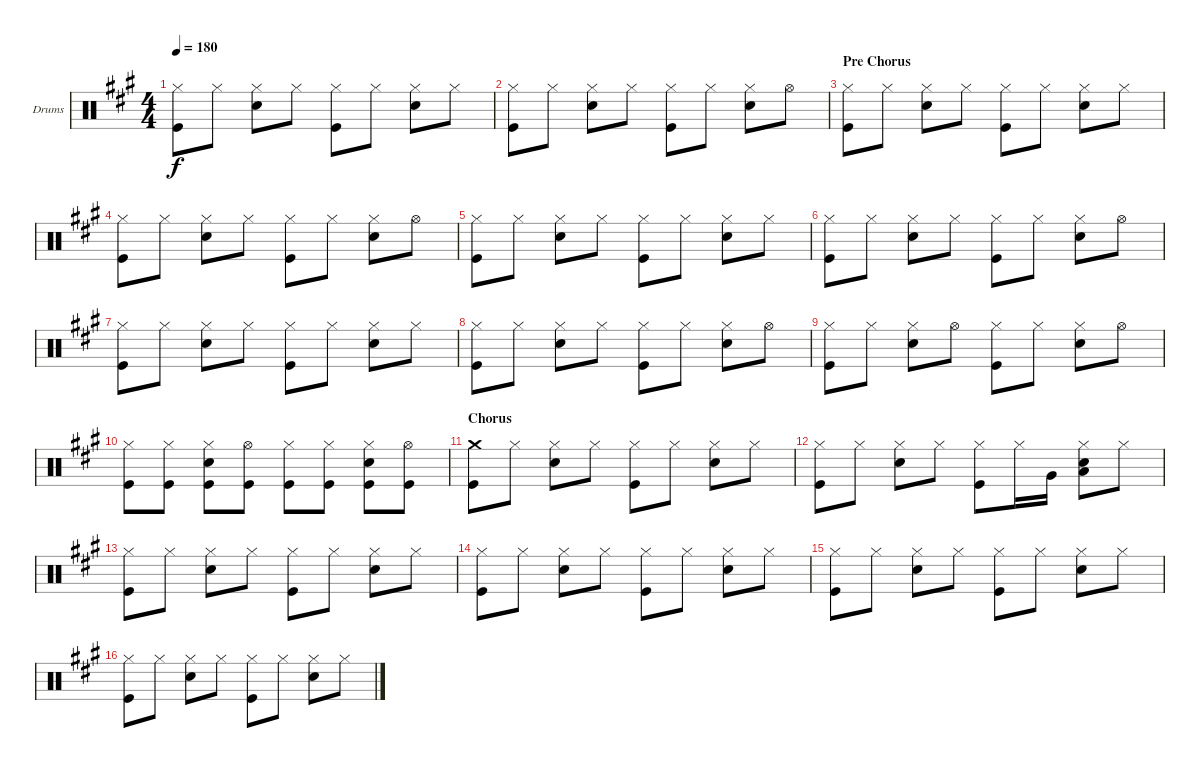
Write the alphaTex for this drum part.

\defaultSystemsLayout 4
\bracketExtendMode groupsimilarinstruments
\firstSystemTrackNameOrientation horizontal
\otherSystemsTrackNameOrientation horizontal
\track ("Drumkit" "Drums") {instrument percussion}
\staff {score}
\articulation defaults
\ts (4 4)
\tempo 180
\clef neutral
\ks f#minor
("Hi-Hat (closed)" "Kick (hit)").8{dy f} "Hi-Hat (closed)".8 ("Hi-Hat (closed)" "Snare (hit) 2").8 "Hi-Hat (closed)".8 ("Hi-Hat (closed)" "Kick (hit)").8 "Hi-Hat (closed)".8 ("Hi-Hat (closed)" "Snare (hit) 2").8 "Hi-Hat (closed)".8 |
("Hi-Hat (closed)" "Kick (hit)").8 "Hi-Hat (closed)".8 ("Hi-Hat (closed)" "Snare (hit) 2").8 "Hi-Hat (closed)".8 ("Hi-Hat (closed)" "Kick (hit)").8 "Hi-Hat (closed)".8 ("Hi-Hat (closed)" "Snare (hit) 2").8 "Hi-Hat (open)".8 |
\section ("" "Pre Chorus")
("Hi-Hat (closed)" "Kick (hit)").8 "Hi-Hat (closed)".8 ("Hi-Hat (closed)" "Snare (hit) 2").8 "Hi-Hat (closed)".8 ("Hi-Hat (closed)" "Kick (hit)").8 "Hi-Hat (closed)".8 ("Hi-Hat (closed)" "Snare (hit) 2").8 "Hi-Hat (closed)".8 |
("Hi-Hat (closed)" "Kick (hit)").8 "Hi-Hat (closed)".8 ("Hi-Hat (closed)" "Snare (hit) 2").8 "Hi-Hat (closed)".8 ("Hi-Hat (closed)" "Kick (hit)").8 "Hi-Hat (closed)".8 ("Hi-Hat (closed)" "Snare (hit) 2").8 "Hi-Hat (open)".8 |
("Hi-Hat (closed)" "Kick (hit)").8 "Hi-Hat (closed)".8 ("Hi-Hat (closed)" "Snare (hit) 2").8 "Hi-Hat (closed)".8 ("Hi-Hat (closed)" "Kick (hit)").8 "Hi-Hat (closed)".8 ("Hi-Hat (closed)" "Snare (hit) 2").8 "Hi-Hat (closed)".8 |
("Hi-Hat (closed)" "Kick (hit)").8 "Hi-Hat (closed)".8 ("Hi-Hat (closed)" "Snare (hit) 2").8 "Hi-Hat (closed)".8 ("Hi-Hat (closed)" "Kick (hit)").8 "Hi-Hat (closed)".8 ("Hi-Hat (closed)" "Snare (hit) 2").8 "Hi-Hat (open)".8 |
("Hi-Hat (closed)" "Kick (hit)").8 "Hi-Hat (closed)".8 ("Hi-Hat (closed)" "Snare (hit) 2").8 "Hi-Hat (closed)".8 ("Hi-Hat (closed)" "Kick (hit)").8 "Hi-Hat (closed)".8 ("Hi-Hat (closed)" "Snare (hit) 2").8 "Hi-Hat (closed)".8 |
("Hi-Hat (closed)" "Kick (hit)").8 "Hi-Hat (closed)".8 ("Hi-Hat (closed)" "Snare (hit) 2").8 "Hi-Hat (closed)".8 ("Hi-Hat (closed)" "Kick (hit)").8 "Hi-Hat (closed)".8 ("Hi-Hat (closed)" "Snare (hit) 2").8 "Hi-Hat (open)".8 |
("Hi-Hat (closed)" "Kick (hit)").8 "Hi-Hat (closed)".8 ("Hi-Hat (closed)" "Snare (hit) 2").8 "Hi-Hat (open)".8 ("Hi-Hat (closed)" "Kick (hit)").8 "Hi-Hat (closed)".8 ("Hi-Hat (closed)" "Snare (hit) 2").8 "Hi-Hat (open)".8 |
("Hi-Hat (closed)" "Kick (hit)").8 ("Hi-Hat (closed)" "Kick (hit)").8 ("Hi-Hat (closed)" "Snare (hit) 2" "Kick (hit)").8 ("Hi-Hat (open)" "Kick (hit)").8 ("Hi-Hat (closed)" "Kick (hit)").8 ("Hi-Hat (closed)" "Kick (hit)").8 ("Hi-Hat (closed)" "Snare (hit) 2" "Kick (hit)").8 ("Hi-Hat (open)" "Kick (hit)").8 |
\section ("" "Chorus")
("Crash medium (hit)" "Kick (hit)").8 "Hi-Hat (closed)".8 ("Hi-Hat (closed)" "Snare (hit) 2").8 "Hi-Hat (closed)".8 ("Hi-Hat (closed)" "Kick (hit)").8 "Hi-Hat (closed)".8 ("Hi-Hat (closed)" "Snare (hit) 2").8 "Hi-Hat (closed)".8 |
("Hi-Hat (closed)" "Kick (hit)").8 "Hi-Hat (closed)".8 ("Hi-Hat (closed)" "Snare (hit) 2").8 "Hi-Hat (closed)".8 ("Hi-Hat (closed)" "Kick (hit)").8 "Hi-Hat (closed)".16 "Very Low Tom (hit)".16 ("Hi-Hat (closed)" "Low Tom (hit)" "Snare (hit) 2").8 "Hi-Hat (closed)".8 |
("Hi-Hat (closed)" "Kick (hit)").8 "Hi-Hat (closed)".8 ("Hi-Hat (closed)" "Snare (hit) 2").8 "Hi-Hat (closed)".8 ("Hi-Hat (closed)" "Kick (hit)").8 "Hi-Hat (closed)".8 ("Hi-Hat (closed)" "Snare (hit) 2").8 "Hi-Hat (closed)".8 |
("Hi-Hat (closed)" "Kick (hit)").8 "Hi-Hat (closed)".8 ("Hi-Hat (closed)" "Snare (hit) 2").8 "Hi-Hat (closed)".8 ("Hi-Hat (closed)" "Kick (hit)").8 "Hi-Hat (closed)".8 ("Hi-Hat (closed)" "Snare (hit) 2").8 "Hi-Hat (closed)".8 |
("Hi-Hat (closed)" "Kick (hit)").8 "Hi-Hat (closed)".8 ("Hi-Hat (closed)" "Snare (hit) 2").8 "Hi-Hat (closed)".8 ("Hi-Hat (closed)" "Kick (hit)").8 "Hi-Hat (closed)".8 ("Hi-Hat (closed)" "Snare (hit) 2").8 "Hi-Hat (closed)".8 |
("Hi-Hat (closed)" "Kick (hit)").8 "Hi-Hat (closed)".8 ("Hi-Hat (closed)" "Snare (hit) 2").8 "Hi-Hat (closed)".8 ("Hi-Hat (closed)" "Kick (hit)").8 "Hi-Hat (closed)".8 ("Hi-Hat (closed)" "Snare (hit) 2").8 "Hi-Hat (closed)".8
